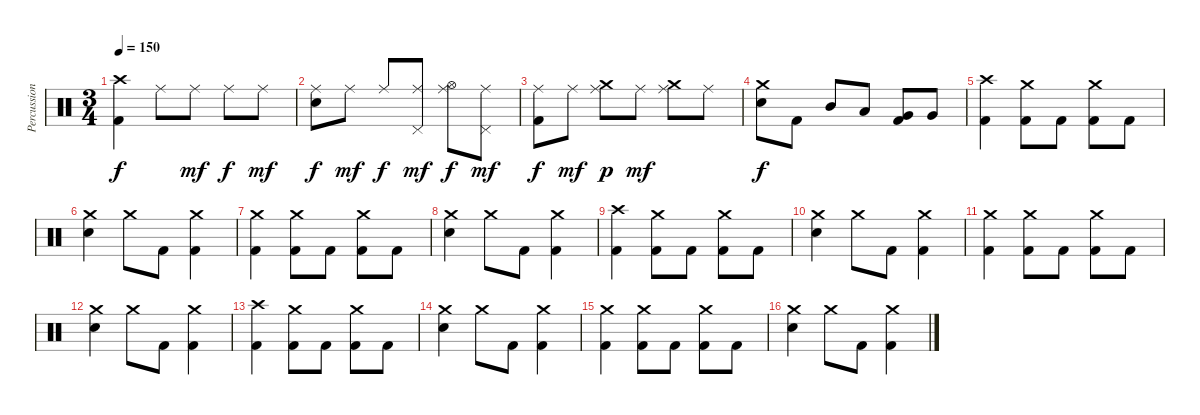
\track ("Percussion" "Percussion") {instrument percussion}
\staff {score}
\articulation defaults
\ts (3 4)
\tempo 150
\clef neutral
\ks c
("Crash high (hit)" "Kick (hit) 2").4{dy f} "Ride (middle)".8 "Ride (middle)".8{dy mf} "Ride (middle)".8{dy f} "Ride (middle)".8{dy mf} |
("Ride (middle)" "Electric Snare (hit)").8{dy f} "Ride (middle)".8{dy mf} "Ride (middle)".8{dy f} ("Ride (middle)" "Pedal Hi-Hat (hit)").8{dy mf} ("Ride (middle)" "Hi-Hat (open)").8{dy f} ("Ride (middle)" "Pedal Hi-Hat (hit)").8{dy mf} |
("Ride (middle)" "Kick (hit) 2").8{dy f} "Ride (middle)".8{dy mf} ("Ride (middle)" "Crash medium (hit)").8{dy p} "Ride (middle)".8{dy mf} ("Ride (middle)" "Crash medium (hit)").8 "Ride (middle)".8 |
("Crash medium (hit)" "Electric Snare (hit)").8{dy f} "Kick (hit) 2".8 "Mid Tom (hit)".8 "Low Tom (hit)".8 ("Very Low Tom (hit)" "Kick (hit) 2").8 "Very Low Tom (hit)".8 |
("Crash high (hit)" "Kick (hit) 2").4 ("Crash medium (hit)" "Kick (hit) 2").8 "Kick (hit) 2".8 ("Crash medium (hit)" "Kick (hit) 2").8 "Kick (hit) 2".8 |
("Crash medium (hit)" "Electric Snare (hit)").4 "Crash medium (hit)".8 "Kick (hit) 2".8 ("Crash medium (hit)" "Kick (hit) 2").4 |
("Crash medium (hit)" "Kick (hit) 2").4 ("Crash medium (hit)" "Kick (hit) 2").8 "Kick (hit) 2".8 ("Crash medium (hit)" "Kick (hit) 2").8 "Kick (hit) 2".8 |
("Crash medium (hit)" "Electric Snare (hit)").4 "Crash medium (hit)".8 "Kick (hit) 2".8 ("Crash medium (hit)" "Kick (hit) 2").4 |
("Crash high (hit)" "Kick (hit) 2").4 ("Crash medium (hit)" "Kick (hit) 2").8 "Kick (hit) 2".8 ("Crash medium (hit)" "Kick (hit) 2").8 "Kick (hit) 2".8 |
("Crash medium (hit)" "Electric Snare (hit)").4 "Crash medium (hit)".8 "Kick (hit) 2".8 ("Crash medium (hit)" "Kick (hit) 2").4 |
("Crash medium (hit)" "Kick (hit) 2").4 ("Crash medium (hit)" "Kick (hit) 2").8 "Kick (hit) 2".8 ("Crash medium (hit)" "Kick (hit) 2").8 "Kick (hit) 2".8 |
("Crash medium (hit)" "Electric Snare (hit)").4 "Crash medium (hit)".8 "Kick (hit) 2".8 ("Crash medium (hit)" "Kick (hit) 2").4 |
("Crash high (hit)" "Kick (hit) 2").4 ("Crash medium (hit)" "Kick (hit) 2").8 "Kick (hit) 2".8 ("Crash medium (hit)" "Kick (hit) 2").8 "Kick (hit) 2".8 |
("Crash medium (hit)" "Electric Snare (hit)").4 "Crash medium (hit)".8 "Kick (hit) 2".8 ("Crash medium (hit)" "Kick (hit) 2").4 |
("Crash medium (hit)" "Kick (hit) 2").4 ("Crash medium (hit)" "Kick (hit) 2").8 "Kick (hit) 2".8 ("Crash medium (hit)" "Kick (hit) 2").8 "Kick (hit) 2".8 |
("Crash medium (hit)" "Electric Snare (hit)").4 "Crash medium (hit)".8 "Kick (hit) 2".8 ("Crash medium (hit)" "Kick (hit) 2").4
